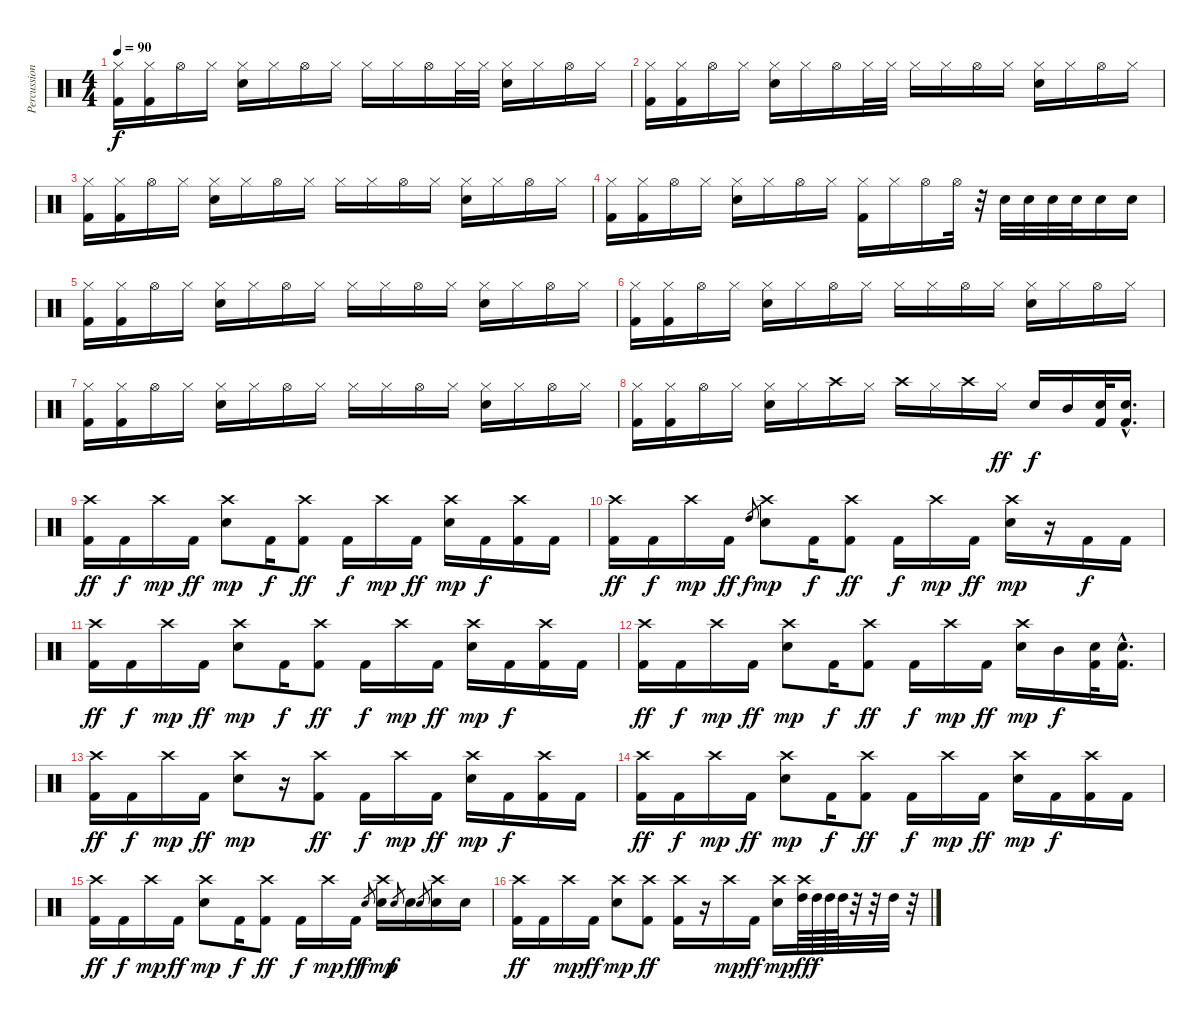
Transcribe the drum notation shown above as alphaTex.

\track ("Percussion" "Percussion") {instrument percussion}
\staff {score}
\articulation defaults
\ts (4 4)
\tempo 90
\clef neutral
\ks c
("Hi-Hat (closed)" "Kick (hit) 2").16{dy f} ("Hi-Hat (closed)" "Kick (hit) 2").16 "Hi-Hat (open)".16 "Hi-Hat (closed)".16 ("Hi-Hat (closed)" "Electric Snare (hit)").16 "Hi-Hat (closed)".16 "Hi-Hat (open)".16 "Hi-Hat (closed)".16 "Hi-Hat (closed)".16 "Hi-Hat (closed)".16 "Hi-Hat (open)".16 "Hi-Hat (closed)".32 "Hi-Hat (closed)".32 ("Hi-Hat (closed)" "Electric Snare (hit)").16 "Hi-Hat (closed)".16 "Hi-Hat (open)".16 "Hi-Hat (closed)".16 |
("Hi-Hat (closed)" "Kick (hit) 2").16 ("Hi-Hat (closed)" "Kick (hit) 2").16 "Hi-Hat (open)".16 "Hi-Hat (closed)".16 ("Hi-Hat (closed)" "Electric Snare (hit)").16 "Hi-Hat (closed)".16 "Hi-Hat (open)".16 "Hi-Hat (closed)".32 "Hi-Hat (closed)".32 "Hi-Hat (closed)".16 "Hi-Hat (closed)".16 "Hi-Hat (open)".16 "Hi-Hat (closed)".16 ("Hi-Hat (closed)" "Electric Snare (hit)").16 "Hi-Hat (closed)".16 "Hi-Hat (open)".16 "Hi-Hat (closed)".16 |
("Hi-Hat (closed)" "Kick (hit) 2").16 ("Hi-Hat (closed)" "Kick (hit) 2").16 "Hi-Hat (open)".16 "Hi-Hat (closed)".16 ("Hi-Hat (closed)" "Electric Snare (hit)").16 "Hi-Hat (closed)".16 "Hi-Hat (open)".16 "Hi-Hat (closed)".16 "Hi-Hat (closed)".16 "Hi-Hat (closed)".16 "Hi-Hat (open)".16 "Hi-Hat (closed)".16 ("Hi-Hat (closed)" "Electric Snare (hit)").16 "Hi-Hat (closed)".16 "Hi-Hat (open)".16 "Hi-Hat (closed)".16 |
("Hi-Hat (closed)" "Kick (hit) 2").16 ("Hi-Hat (closed)" "Kick (hit) 2").16 "Hi-Hat (open)".16 "Hi-Hat (closed)".16 ("Hi-Hat (closed)" "Electric Snare (hit)").16 "Hi-Hat (closed)".16 "Hi-Hat (open)".16 "Hi-Hat (closed)".16 ("Hi-Hat (closed)" "Kick (hit) 2").16 "Hi-Hat (closed)".16 "Hi-Hat (open)".16 "Hi-Hat (open)".32 r.32 "Snare (hit) 2".32 "Snare (hit) 2".32 "Snare (hit) 2".32 "Snare (hit) 2".32 "Snare (hit) 2".16 "Snare (hit) 2".16 |
("Hi-Hat (closed)" "Kick (hit) 2").16 ("Hi-Hat (closed)" "Kick (hit) 2").16 "Hi-Hat (open)".16 "Hi-Hat (closed)".16 ("Hi-Hat (closed)" "Electric Snare (hit)").16 "Hi-Hat (closed)".16 "Hi-Hat (open)".16 "Hi-Hat (closed)".16 "Hi-Hat (closed)".16 "Hi-Hat (closed)".16 "Hi-Hat (open)".16 "Hi-Hat (closed)".16 ("Hi-Hat (closed)" "Electric Snare (hit)").16 "Hi-Hat (closed)".16 "Hi-Hat (open)".16 "Hi-Hat (closed)".16 |
("Hi-Hat (closed)" "Kick (hit) 2").16 ("Hi-Hat (closed)" "Kick (hit) 2").16 "Hi-Hat (open)".16 "Hi-Hat (closed)".16 ("Hi-Hat (closed)" "Electric Snare (hit)").16 "Hi-Hat (closed)".16 "Hi-Hat (open)".16 "Hi-Hat (closed)".16 "Hi-Hat (closed)".16 "Hi-Hat (closed)".16 "Hi-Hat (open)".16 "Hi-Hat (closed)".16 ("Hi-Hat (closed)" "Electric Snare (hit)").16 "Hi-Hat (closed)".16 "Hi-Hat (open)".16 "Hi-Hat (closed)".16 |
("Hi-Hat (closed)" "Kick (hit) 2").16 ("Hi-Hat (closed)" "Kick (hit) 2").16 "Hi-Hat (open)".16 "Hi-Hat (closed)".16 ("Hi-Hat (closed)" "Electric Snare (hit)").16 "Hi-Hat (closed)".16 "Hi-Hat (open)".16 "Hi-Hat (closed)".16 "Hi-Hat (closed)".16 "Hi-Hat (closed)".16 "Hi-Hat (open)".16 "Hi-Hat (closed)".16 ("Hi-Hat (closed)" "Electric Snare (hit)").16 "Hi-Hat (closed)".16 "Hi-Hat (open)".16 "Hi-Hat (closed)".16 |
("Hi-Hat (closed)" "Kick (hit) 2").16 ("Hi-Hat (closed)" "Kick (hit) 2").16 "Hi-Hat (open)".16 "Hi-Hat (closed)".16 ("Hi-Hat (closed)" "Electric Snare (hit)").16 "Hi-Hat (closed)".16 "Crash high (hit)".16 "Hi-Hat (closed)".16 "Crash high (hit)".16 "Hi-Hat (closed)".16 "Crash high (hit)".16 "Hi-Hat (closed)".16{dy ff} "Electric Snare (hit)".16{dy f} "Mid Tom (hit)".16 ("Electric Snare (hit)" "Kick (hit) 2").32 ("Electric Snare (hit)"{hac} "Kick (hit) 2"{hac}).16{d} |
("Crash high (hit)" "Kick (hit) 2").16{dy ff} "Kick (hit) 2".16{dy f} "Crash high (hit)".16{dy mp} "Kick (hit) 2".16{dy ff} ("Crash high (hit)" "Electric Snare (hit)").8{dy mp} "Kick (hit) 2".16{dy f} ("Crash high (hit)" "Kick (hit) 2").8{dy ff} "Kick (hit) 2".16{dy f} "Crash high (hit)".16{dy mp} "Kick (hit) 2".16{dy ff} ("Crash high (hit)" "Electric Snare (hit)").16{dy mp} "Kick (hit) 2".16{dy f} ("Crash high (hit)" "Kick (hit) 2").16 "Kick (hit) 2".16 |
("Crash high (hit)" "Kick (hit) 2").16{dy ff} "Kick (hit) 2".16{dy f} "Crash high (hit)".16{dy mp} "Kick (hit) 2".16{dy ff} "High Tom (hit)".8{gr dy f} ("Crash high (hit)" "Electric Snare (hit)").8{dy mp} "Kick (hit) 2".16{dy f} ("Crash high (hit)" "Kick (hit) 2").8{dy ff} "Kick (hit) 2".16{dy f} "Crash high (hit)".16{dy mp} "Kick (hit) 2".16{dy ff} ("Crash high (hit)" "Electric Snare (hit)").16{dy mp} r.16 "Kick (hit) 2".16{dy f} "Kick (hit) 2".16 |
("Crash high (hit)" "Kick (hit) 2").16{dy ff} "Kick (hit) 2".16{dy f} "Crash high (hit)".16{dy mp} "Kick (hit) 2".16{dy ff} ("Crash high (hit)" "Electric Snare (hit)").8{dy mp} "Kick (hit) 2".16{dy f} ("Crash high (hit)" "Kick (hit) 2").8{dy ff} "Kick (hit) 2".16{dy f} "Crash high (hit)".16{dy mp} "Kick (hit) 2".16{dy ff} ("Crash high (hit)" "Electric Snare (hit)").16{dy mp} "Kick (hit) 2".16{dy f} ("Crash high (hit)" "Kick (hit) 2").16 "Kick (hit) 2".16 |
("Crash high (hit)" "Kick (hit) 2").16{dy ff} "Kick (hit) 2".16{dy f} "Crash high (hit)".16{dy mp} "Kick (hit) 2".16{dy ff} ("Crash high (hit)" "Electric Snare (hit)").8{dy mp} "Kick (hit) 2".16{dy f} ("Crash high (hit)" "Kick (hit) 2").8{dy ff} "Kick (hit) 2".16{dy f} "Crash high (hit)".16{dy mp} "Kick (hit) 2".16{dy ff} ("Crash high (hit)" "Electric Snare (hit)").16{dy mp} "Mid Tom (hit)".16{dy f} ("Electric Snare (hit)" "Kick (hit) 2").32 ("Electric Snare (hit)"{hac} "Kick (hit) 2"{hac}).16{d} |
("Crash high (hit)" "Kick (hit) 2").16{dy ff} "Kick (hit) 2".16{dy f} "Crash high (hit)".16{dy mp} "Kick (hit) 2".16{dy ff} ("Crash high (hit)" "Electric Snare (hit)").8{dy mp} r.16 ("Crash high (hit)" "Kick (hit) 2").8{dy ff} "Kick (hit) 2".16{dy f} "Crash high (hit)".16{dy mp} "Kick (hit) 2".16{dy ff} ("Crash high (hit)" "Electric Snare (hit)").16{dy mp} "Kick (hit) 2".16{dy f} ("Crash high (hit)" "Kick (hit) 2").16 "Kick (hit) 2".16 |
("Crash high (hit)" "Kick (hit) 2").16{dy ff} "Kick (hit) 2".16{dy f} "Crash high (hit)".16{dy mp} "Kick (hit) 2".16{dy ff} ("Crash high (hit)" "Electric Snare (hit)").8{dy mp} "Kick (hit) 2".16{dy f} ("Crash high (hit)" "Kick (hit) 2").8{dy ff} "Kick (hit) 2".16{dy f} "Crash high (hit)".16{dy mp} "Kick (hit) 2".16{dy ff} ("Crash high (hit)" "Electric Snare (hit)").16{dy mp} "Kick (hit) 2".16{dy f} ("Crash high (hit)" "Kick (hit) 2").16 "Kick (hit) 2".16 |
("Crash high (hit)" "Kick (hit) 2").16{dy ff} "Kick (hit) 2".16{dy f} "Crash high (hit)".16{dy mp} "Kick (hit) 2".16{dy ff} ("Crash high (hit)" "Electric Snare (hit)").8{dy mp} "Kick (hit) 2".16{dy f} ("Crash high (hit)" "Kick (hit) 2").8{dy ff} "Kick (hit) 2".16{dy f} "Crash high (hit)".16{dy mp} "Kick (hit) 2".16{dy ff} "Electric Snare (hit)".8{gr dy f} ("Crash high (hit)" "Electric Snare (hit)").16{dy mp} "Electric Snare (hit)".8{gr dy f} "Electric Snare (hit)".16 "Electric Snare (hit)".8{gr} ("Crash high (hit)" "Electric Snare (hit)").16 "Electric Snare (hit)".16 |
("Crash high (hit)" "Kick (hit) 2").16{dy ff} "Kick (hit) 2".16 "Crash high (hit)".16{dy mp} "Kick (hit) 2".16{dy ff} ("Crash high (hit)" "Electric Snare (hit)").8{dy mp} ("Crash high (hit)" "Kick (hit) 2").8{dy ff} ("Crash high (hit)" "Kick (hit) 2").16 r.16 "Crash high (hit)".16{dy mp} "Kick (hit) 2".16{dy ff} ("Crash high (hit)" "Electric Snare (hit)").16{dy mp} ("Crash high (hit)" "High Tom (hit)").64{dy ff} "High Tom (hit)".64{dy f} "High Tom (hit)".64 "High Tom (hit)".64 r.32 r.32 "High Tom (hit)".32 r.32
